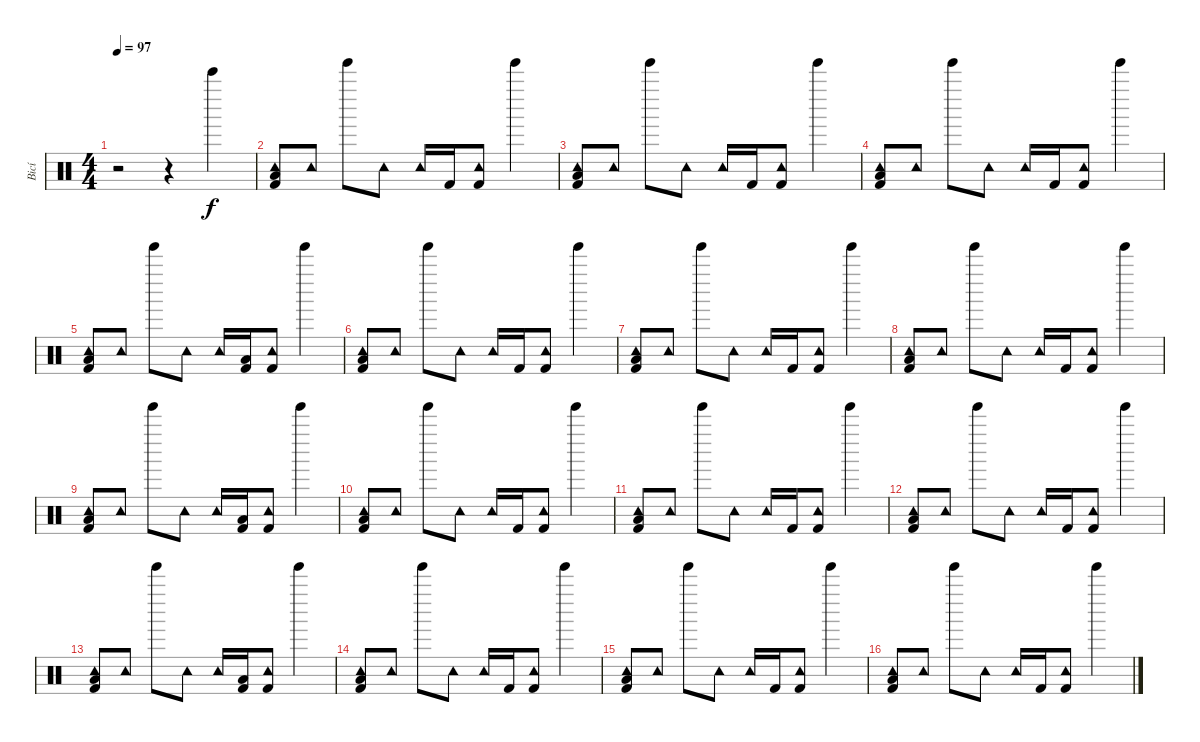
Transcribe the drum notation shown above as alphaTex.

\track ("Bicí" "Bicí") {instrument percussion}
\staff {score}
\articulation defaults
\ts (4 4)
\tempo 97
\clef neutral
\ks c
r.2{dy f} r.4 "Bell Tree (hit)".4 |
("Tambourine (hit)" "Low Floor Tom (hit)" "Kick (hit) 2").8 "Tambourine (hit)".8 "Tinkle Bell (hit)".8 "Tambourine (hit)".8 "Tambourine (hit)".16 "Kick (hit) 2".16 ("Tambourine (hit)" "Kick (hit) 2").8 "Tinkle Bell (hit)".4 |
("Tambourine (hit)" "Low Floor Tom (hit)" "Kick (hit) 2").8 "Tambourine (hit)".8 "Tinkle Bell (hit)".8 "Tambourine (hit)".8 "Tambourine (hit)".16 "Kick (hit) 2".16 ("Tambourine (hit)" "Kick (hit) 2").8 "Tinkle Bell (hit)".4 |
("Tambourine (hit)" "Low Floor Tom (hit)" "Kick (hit) 2").8 "Tambourine (hit)".8 "Tinkle Bell (hit)".8 "Tambourine (hit)".8 "Tambourine (hit)".16 "Kick (hit) 2".16 ("Tambourine (hit)" "Kick (hit) 2").8 "Tinkle Bell (hit)".4 |
("Tambourine (hit)" "Low Floor Tom (hit)" "Kick (hit) 2").8 "Tambourine (hit)".8 "Tinkle Bell (hit)".8 "Tambourine (hit)".8 "Tambourine (hit)".16 ("Low Floor Tom (hit)" "Kick (hit) 2").16 ("Tambourine (hit)" "Kick (hit) 2").8 "Tinkle Bell (hit)".4 |
("Tambourine (hit)" "Low Floor Tom (hit)" "Kick (hit) 2").8 "Tambourine (hit)".8 "Tinkle Bell (hit)".8 "Tambourine (hit)".8 "Tambourine (hit)".16 "Kick (hit) 2".16 ("Tambourine (hit)" "Kick (hit) 2").8 "Tinkle Bell (hit)".4 |
("Tambourine (hit)" "Low Floor Tom (hit)" "Kick (hit) 2").8 "Tambourine (hit)".8 "Tinkle Bell (hit)".8 "Tambourine (hit)".8 "Tambourine (hit)".16 "Kick (hit) 2".16 ("Tambourine (hit)" "Kick (hit) 2").8 "Tinkle Bell (hit)".4 |
("Tambourine (hit)" "Low Floor Tom (hit)" "Kick (hit) 2").8 "Tambourine (hit)".8 "Tinkle Bell (hit)".8 "Tambourine (hit)".8 "Tambourine (hit)".16 "Kick (hit) 2".16 ("Tambourine (hit)" "Kick (hit) 2").8 "Tinkle Bell (hit)".4 |
("Tambourine (hit)" "Low Floor Tom (hit)" "Kick (hit) 2").8 "Tambourine (hit)".8 "Tinkle Bell (hit)".8 "Tambourine (hit)".8 "Tambourine (hit)".16 ("Low Floor Tom (hit)" "Kick (hit) 2").16 ("Tambourine (hit)" "Kick (hit) 2").8 "Tinkle Bell (hit)".4 |
("Tambourine (hit)" "Low Floor Tom (hit)" "Kick (hit) 2").8 "Tambourine (hit)".8 "Tinkle Bell (hit)".8 "Tambourine (hit)".8 "Tambourine (hit)".16 "Kick (hit) 2".16 ("Tambourine (hit)" "Kick (hit) 2").8 "Tinkle Bell (hit)".4 |
("Tambourine (hit)" "Low Floor Tom (hit)" "Kick (hit) 2").8 "Tambourine (hit)".8 "Tinkle Bell (hit)".8 "Tambourine (hit)".8 "Tambourine (hit)".16 "Kick (hit) 2".16 ("Tambourine (hit)" "Kick (hit) 2").8 "Tinkle Bell (hit)".4 |
("Tambourine (hit)" "Low Floor Tom (hit)" "Kick (hit) 2").8 "Tambourine (hit)".8 "Tinkle Bell (hit)".8 "Tambourine (hit)".8 "Tambourine (hit)".16 "Kick (hit) 2".16 ("Tambourine (hit)" "Kick (hit) 2").8 "Tinkle Bell (hit)".4 |
("Tambourine (hit)" "Low Floor Tom (hit)" "Kick (hit) 2").8 "Tambourine (hit)".8 "Tinkle Bell (hit)".8 "Tambourine (hit)".8 "Tambourine (hit)".16 ("Low Floor Tom (hit)" "Kick (hit) 2").16 ("Tambourine (hit)" "Kick (hit) 2").8 "Tinkle Bell (hit)".4 |
("Tambourine (hit)" "Low Floor Tom (hit)" "Kick (hit) 2").8 "Tambourine (hit)".8 "Tinkle Bell (hit)".8 "Tambourine (hit)".8 "Tambourine (hit)".16 "Kick (hit) 2".16 ("Tambourine (hit)" "Kick (hit) 2").8 "Tinkle Bell (hit)".4 |
("Tambourine (hit)" "Low Floor Tom (hit)" "Kick (hit) 2").8 "Tambourine (hit)".8 "Tinkle Bell (hit)".8 "Tambourine (hit)".8 "Tambourine (hit)".16 "Kick (hit) 2".16 ("Tambourine (hit)" "Kick (hit) 2").8 "Tinkle Bell (hit)".4 |
("Tambourine (hit)" "Low Floor Tom (hit)" "Kick (hit) 2").8 "Tambourine (hit)".8 "Tinkle Bell (hit)".8 "Tambourine (hit)".8 "Tambourine (hit)".16 "Kick (hit) 2".16 ("Tambourine (hit)" "Kick (hit) 2").8 "Tinkle Bell (hit)".4
